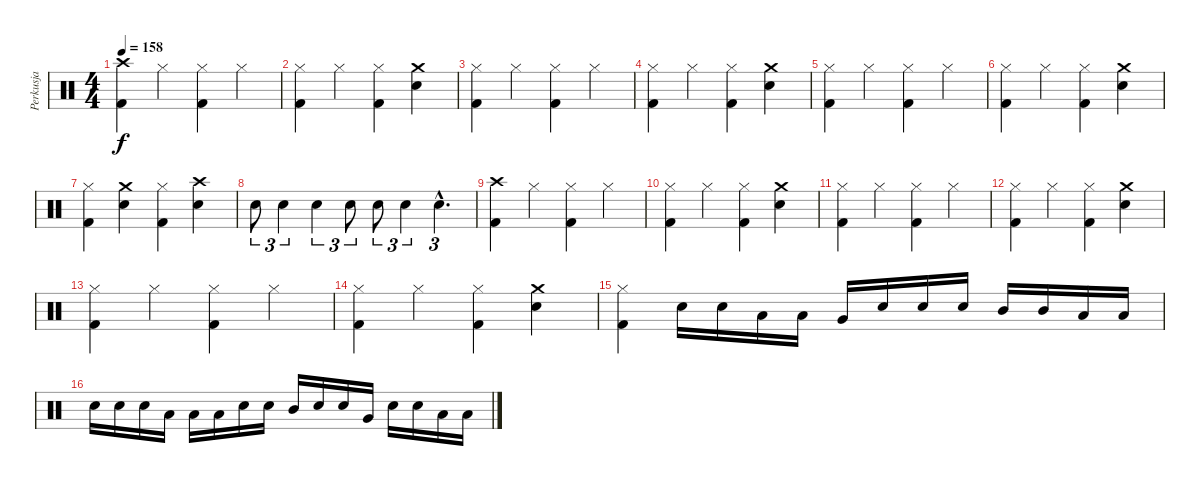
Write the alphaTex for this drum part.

\track ("Perkusja" "Perkusja") {instrument percussion}
\staff {score}
\articulation defaults
\ts (4 4)
\tempo 158
\clef neutral
\ks c
("Crash high (hit)" "Kick (hit) 2").4{dy f} "Hi-Hat (closed)".4 ("Hi-Hat (closed)" "Kick (hit) 2").4 "Hi-Hat (closed)".4 |
("Hi-Hat (closed)" "Kick (hit) 2").4 "Hi-Hat (closed)".4 ("Hi-Hat (closed)" "Kick (hit) 2").4 ("Crash medium (hit)" "Snare (hit) 2").4 |
("Hi-Hat (closed)" "Kick (hit) 2").4 "Hi-Hat (closed)".4 ("Hi-Hat (closed)" "Kick (hit) 2").4 "Hi-Hat (closed)".4 |
("Hi-Hat (closed)" "Kick (hit) 2").4 "Hi-Hat (closed)".4 ("Hi-Hat (closed)" "Kick (hit) 2").4 ("Crash medium (hit)" "Snare (hit) 2").4 |
("Hi-Hat (closed)" "Kick (hit) 2").4 "Hi-Hat (closed)".4 ("Hi-Hat (closed)" "Kick (hit) 2").4 "Hi-Hat (closed)".4 |
("Hi-Hat (closed)" "Kick (hit) 2").4 "Hi-Hat (closed)".4 ("Hi-Hat (closed)" "Kick (hit) 2").4 ("Crash medium (hit)" "Snare (hit) 2").4 |
("Hi-Hat (closed)" "Kick (hit) 2").4 ("Crash medium (hit)" "Snare (hit) 2").4 ("Hi-Hat (closed)" "Kick (hit) 2").4 ("Crash high (hit)" "Snare (hit) 2").4 |
"Snare (hit) 2".8{tu (3 2)} "Snare (hit) 2".4{tu (3 2)} "Snare (hit) 2".4{tu (3 2)} "Snare (hit) 2".8{tu (3 2)} "Snare (hit) 2".8{tu (3 2)} "Snare (hit) 2".4{tu (3 2)} "Snare (hit) 2"{hac}.4{d tu (3 2)} |
("Crash high (hit)" "Kick (hit) 2").4 "Hi-Hat (closed)".4 ("Hi-Hat (closed)" "Kick (hit) 2").4 "Hi-Hat (closed)".4 |
("Hi-Hat (closed)" "Kick (hit) 2").4 "Hi-Hat (closed)".4 ("Hi-Hat (closed)" "Kick (hit) 2").4 ("Crash medium (hit)" "Snare (hit) 2").4 |
("Hi-Hat (closed)" "Kick (hit) 2").4 "Hi-Hat (closed)".4 ("Hi-Hat (closed)" "Kick (hit) 2").4 "Hi-Hat (closed)".4 |
("Hi-Hat (closed)" "Kick (hit) 2").4 "Hi-Hat (closed)".4 ("Hi-Hat (closed)" "Kick (hit) 2").4 ("Crash medium (hit)" "Snare (hit) 2").4 |
("Hi-Hat (closed)" "Kick (hit) 2").4 "Hi-Hat (closed)".4 ("Hi-Hat (closed)" "Kick (hit) 2").4 "Hi-Hat (closed)".4 |
("Hi-Hat (closed)" "Kick (hit) 2").4 "Hi-Hat (closed)".4 ("Hi-Hat (closed)" "Kick (hit) 2").4 ("Crash medium (hit)" "Snare (hit) 2").4 |
("Hi-Hat (closed)" "Kick (hit) 2").4 "Snare (hit) 2".16 "Snare (hit) 2".16 "Low Tom (hit)".16 "Low Tom (hit)".16 "Very Low Tom (hit)".16 "Snare (hit) 2".16 "Snare (hit) 2".16 "Snare (hit) 2".16 "Mid Tom (hit)".16 "Mid Tom (hit)".16 "Low Tom (hit)".16 "Low Tom (hit)".16 |
"Snare (hit) 2".16 "Snare (hit) 2".16 "Snare (hit) 2".16 "Low Tom (hit)".16 "Low Tom (hit)".16 "Low Tom (hit)".16 "Snare (hit) 2".16 "Snare (hit) 2".16 "Mid Tom (hit)".16 "Snare (hit) 2".16 "Snare (hit) 2".16 "Very Low Tom (hit)".16 "Snare (hit) 2".16 "Snare (hit) 2".16 "Low Tom (hit)".16 "Low Tom (hit)".16
